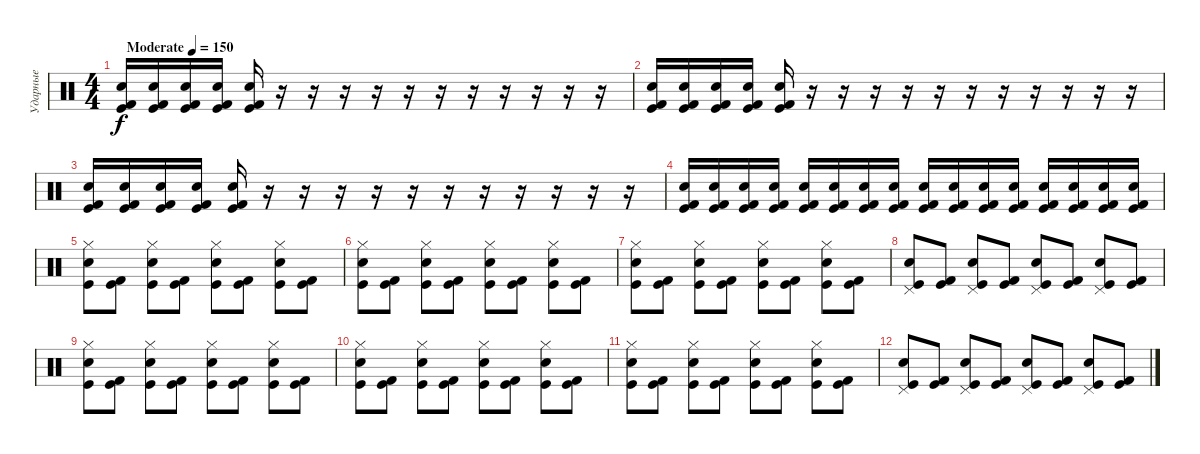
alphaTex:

\track ("Ударные" "Ударные") {instrument percussion}
\staff {score}
\articulation defaults
\ts (4 4)
\tempo (150 "Moderate")
\clef neutral
\ks c
("Electric Snare (hit)" "Kick (hit)" "Kick (hit) 2").16{dy f} ("Electric Snare (hit)" "Kick (hit)" "Kick (hit) 2").16 ("Electric Snare (hit)" "Kick (hit)" "Kick (hit) 2").16 ("Electric Snare (hit)" "Kick (hit)" "Kick (hit) 2").16 ("Electric Snare (hit)" "Kick (hit)" "Kick (hit) 2").16 r.16 r.16 r.16 r.16 r.16 r.16 r.16 r.16 r.16 r.16 r.16 |
("Electric Snare (hit)" "Kick (hit)" "Kick (hit) 2").16 ("Electric Snare (hit)" "Kick (hit)" "Kick (hit) 2").16 ("Electric Snare (hit)" "Kick (hit)" "Kick (hit) 2").16 ("Electric Snare (hit)" "Kick (hit)" "Kick (hit) 2").16 ("Electric Snare (hit)" "Kick (hit)" "Kick (hit) 2").16 r.16 r.16 r.16 r.16 r.16 r.16 r.16 r.16 r.16 r.16 r.16 |
("Electric Snare (hit)" "Kick (hit)" "Kick (hit) 2").16 ("Electric Snare (hit)" "Kick (hit)" "Kick (hit) 2").16 ("Electric Snare (hit)" "Kick (hit)" "Kick (hit) 2").16 ("Electric Snare (hit)" "Kick (hit)" "Kick (hit) 2").16 ("Electric Snare (hit)" "Kick (hit)" "Kick (hit) 2").16 r.16 r.16 r.16 r.16 r.16 r.16 r.16 r.16 r.16 r.16 r.16 |
("Electric Snare (hit)" "Kick (hit)" "Kick (hit) 2").16 ("Electric Snare (hit)" "Kick (hit)" "Kick (hit) 2").16 ("Electric Snare (hit)" "Kick (hit)" "Kick (hit) 2").16 ("Electric Snare (hit)" "Kick (hit)" "Kick (hit) 2").16 ("Electric Snare (hit)" "Kick (hit)" "Kick (hit) 2").16 ("Electric Snare (hit)" "Kick (hit)" "Kick (hit) 2").16 ("Electric Snare (hit)" "Kick (hit)" "Kick (hit) 2").16 ("Electric Snare (hit)" "Kick (hit)" "Kick (hit) 2").16 ("Electric Snare (hit)" "Kick (hit)" "Kick (hit) 2").16 ("Electric Snare (hit)" "Kick (hit)" "Kick (hit) 2").16 ("Electric Snare (hit)" "Kick (hit)" "Kick (hit) 2").16 ("Electric Snare (hit)" "Kick (hit)" "Kick (hit) 2").16 ("Electric Snare (hit)" "Kick (hit)" "Kick (hit) 2").16 ("Electric Snare (hit)" "Kick (hit)" "Kick (hit) 2").16 ("Electric Snare (hit)" "Kick (hit)" "Kick (hit) 2").16 ("Electric Snare (hit)" "Kick (hit)" "Kick (hit) 2").16 |
("Hi-Hat (closed)" "Electric Snare (hit)" "Kick (hit)").8 ("Kick (hit)" "Kick (hit) 2").8 ("Hi-Hat (closed)" "Electric Snare (hit)" "Kick (hit)").8 ("Kick (hit)" "Kick (hit) 2").8 ("Hi-Hat (closed)" "Electric Snare (hit)" "Kick (hit)").8 ("Kick (hit)" "Kick (hit) 2").8 ("Hi-Hat (closed)" "Electric Snare (hit)" "Kick (hit)").8 ("Kick (hit)" "Kick (hit) 2").8 |
("Hi-Hat (closed)" "Electric Snare (hit)" "Kick (hit)").8 ("Kick (hit)" "Kick (hit) 2").8 ("Hi-Hat (closed)" "Electric Snare (hit)" "Kick (hit)").8 ("Kick (hit)" "Kick (hit) 2").8 ("Hi-Hat (closed)" "Electric Snare (hit)" "Kick (hit)").8 ("Kick (hit)" "Kick (hit) 2").8 ("Hi-Hat (closed)" "Electric Snare (hit)" "Kick (hit)").8 ("Kick (hit)" "Kick (hit) 2").8 |
("Hi-Hat (closed)" "Electric Snare (hit)" "Kick (hit)").8 ("Kick (hit)" "Kick (hit) 2").8 ("Hi-Hat (closed)" "Electric Snare (hit)" "Kick (hit)").8 ("Kick (hit)" "Kick (hit) 2").8 ("Hi-Hat (closed)" "Electric Snare (hit)" "Kick (hit)").8 ("Kick (hit)" "Kick (hit) 2").8 ("Hi-Hat (closed)" "Electric Snare (hit)" "Kick (hit)").8 ("Kick (hit)" "Kick (hit) 2").8 |
("Pedal Hi-Hat (hit)" "Electric Snare (hit)" "Kick (hit)").8 ("Kick (hit)" "Kick (hit) 2").8 ("Pedal Hi-Hat (hit)" "Electric Snare (hit)" "Kick (hit)").8 ("Kick (hit)" "Kick (hit) 2").8 ("Pedal Hi-Hat (hit)" "Electric Snare (hit)" "Kick (hit)").8 ("Kick (hit)" "Kick (hit) 2").8 ("Pedal Hi-Hat (hit)" "Electric Snare (hit)" "Kick (hit)").8 ("Kick (hit)" "Kick (hit) 2").8 |
("Hi-Hat (closed)" "Electric Snare (hit)" "Kick (hit)").8 ("Kick (hit)" "Kick (hit) 2").8 ("Hi-Hat (closed)" "Electric Snare (hit)" "Kick (hit)").8 ("Kick (hit)" "Kick (hit) 2").8 ("Hi-Hat (closed)" "Electric Snare (hit)" "Kick (hit)").8 ("Kick (hit)" "Kick (hit) 2").8 ("Hi-Hat (closed)" "Electric Snare (hit)" "Kick (hit)").8 ("Kick (hit)" "Kick (hit) 2").8 |
("Hi-Hat (closed)" "Electric Snare (hit)" "Kick (hit)").8 ("Kick (hit)" "Kick (hit) 2").8 ("Hi-Hat (closed)" "Electric Snare (hit)" "Kick (hit)").8 ("Kick (hit)" "Kick (hit) 2").8 ("Hi-Hat (closed)" "Electric Snare (hit)" "Kick (hit)").8 ("Kick (hit)" "Kick (hit) 2").8 ("Hi-Hat (closed)" "Electric Snare (hit)" "Kick (hit)").8 ("Kick (hit)" "Kick (hit) 2").8 |
("Hi-Hat (closed)" "Electric Snare (hit)" "Kick (hit)").8 ("Kick (hit)" "Kick (hit) 2").8 ("Hi-Hat (closed)" "Electric Snare (hit)" "Kick (hit)").8 ("Kick (hit)" "Kick (hit) 2").8 ("Hi-Hat (closed)" "Electric Snare (hit)" "Kick (hit)").8 ("Kick (hit)" "Kick (hit) 2").8 ("Hi-Hat (closed)" "Electric Snare (hit)" "Kick (hit)").8 ("Kick (hit)" "Kick (hit) 2").8 |
("Pedal Hi-Hat (hit)" "Electric Snare (hit)" "Kick (hit)").8 ("Kick (hit)" "Kick (hit) 2").8 ("Pedal Hi-Hat (hit)" "Electric Snare (hit)" "Kick (hit)").8 ("Kick (hit)" "Kick (hit) 2").8 ("Pedal Hi-Hat (hit)" "Electric Snare (hit)" "Kick (hit)").8 ("Kick (hit)" "Kick (hit) 2").8 ("Pedal Hi-Hat (hit)" "Electric Snare (hit)" "Kick (hit)").8 ("Kick (hit)" "Kick (hit) 2").8
